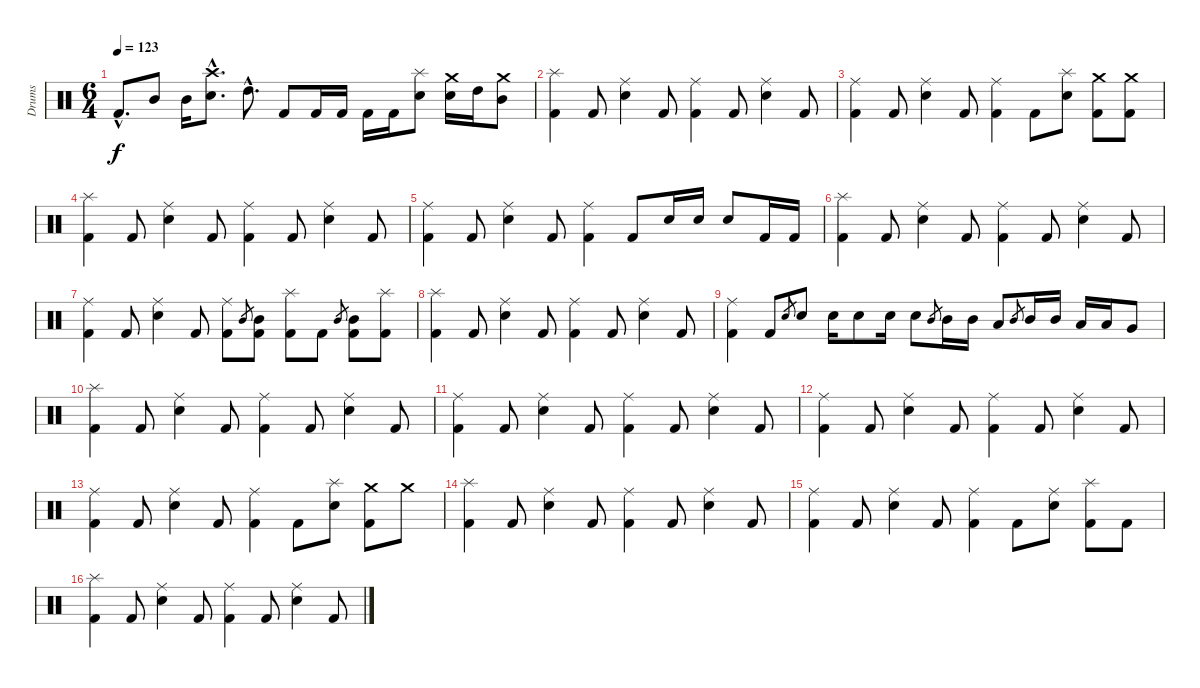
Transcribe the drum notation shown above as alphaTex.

\track ("Drums" "Drums") {instrument percussion}
\staff {score}
\articulation defaults
\ts (6 4)
\tempo 123
\clef neutral
\ks c "Kick (hit) 2"{hac}.8{d dy f} "Mid Tom (hit)".8 "Mid Tom (hit)".16
("Crash high (hit)"{hac} "Snare (hit) 2"{hac}).8{d} "High Tom (hit)"{hac}.8{d} "Kick (hit) 2".8 "Kick (hit) 2".16 "Kick (hit) 2".16 "Kick (hit) 2".16 "Kick (hit) 2".16 ("Splash (hit)" "Snare (hit) 2").8 ("Crash medium (hit)" "Snare (hit) 2").16 "High Tom (hit)".16 ("Crash medium (hit)" "Mid Tom (hit)").8 |
("Splash (hit)" "Kick (hit) 2").4 "Kick (hit) 2".8 ("Ride (middle)" "Snare (hit) 2").4 "Kick (hit) 2".8 ("Ride (middle)" "Kick (hit) 2").4 "Kick (hit) 2".8 ("Ride (middle)" "Snare (hit) 2").4 "Kick (hit) 2".8 |
("Ride (middle)" "Kick (hit) 2").4 "Kick (hit) 2".8 ("Ride (middle)" "Snare (hit) 2").4 "Kick (hit) 2".8 ("Ride (middle)" "Kick (hit) 2").4 "Kick (hit) 2".8 ("Splash (hit)" "Snare (hit) 2").8 ("Crash medium (hit)" "Kick (hit) 2").8 ("Crash medium (hit)" "Kick (hit) 2").8 |
("Splash (hit)" "Kick (hit) 2").4 "Kick (hit) 2".8 ("Ride (middle)" "Snare (hit) 2").4 "Kick (hit) 2".8 ("Ride (middle)" "Kick (hit) 2").4 "Kick (hit) 2".8 ("Ride (middle)" "Snare (hit) 2").4 "Kick (hit) 2".8 |
("Ride (middle)" "Kick (hit) 2").4 "Kick (hit) 2".8 ("Ride (middle)" "Snare (hit) 2").4 "Kick (hit) 2".8 ("Ride (middle)" "Kick (hit) 2").4 "Kick (hit) 2".8 "Snare (hit) 2".16 "Snare (hit) 2".16 "Snare (hit) 2".8 "Kick (hit) 2".16 "Kick (hit) 2".16 |
("Splash (hit)" "Kick (hit) 2").4 "Kick (hit) 2".8 ("Ride (middle)" "Snare (hit) 2").4 "Kick (hit) 2".8 ("Ride (middle)" "Kick (hit) 2").4 "Kick (hit) 2".8 ("Ride (middle)" "Snare (hit) 2").4 "Kick (hit) 2".8 |
("Ride (middle)" "Kick (hit) 2").4 "Kick (hit) 2".8 ("Ride (middle)" "Snare (hit) 2").4 "Kick (hit) 2".8 ("Ride (middle)" "Kick (hit) 2").8 "Mid Tom (hit)".8{gr} ("Mid Tom (hit)" "Kick (hit) 2").8 ("Splash (hit)" "Kick (hit) 2").8 "Kick (hit) 2".8 "Mid Tom (hit)".8{gr} ("Mid Tom (hit)" "Kick (hit) 2").8 ("Splash (hit)" "Kick (hit) 2").8 |
("Splash (hit)" "Kick (hit) 2").4 "Kick (hit) 2".8 ("Ride (middle)" "Snare (hit) 2").4 "Kick (hit) 2".8 ("Ride (middle)" "Kick (hit) 2").4 "Kick (hit) 2".8 ("Ride (middle)" "Snare (hit) 2").4 "Kick (hit) 2".8 |
("Ride (middle)" "Kick (hit) 2").4 "Kick (hit) 2".8 "Snare (hit) 2".8{gr} "Snare (hit) 2".8 "Snare (hit) 2".16 "Snare (hit) 2".8 "Snare (hit) 2".16 "Snare (hit) 2".8 "Mid Tom (hit)".8{gr} "Mid Tom (hit)".16 "Mid Tom (hit)".16 "Low Tom (hit)".8 "Mid Tom (hit)".8{gr} "Mid Tom (hit)".16 "Mid Tom (hit)".16 "Low Tom (hit)".16 "Low Tom (hit)".16 "Very Low Tom (hit)".8 |
("Splash (hit)" "Kick (hit) 2").4 "Kick (hit) 2".8 ("Ride (middle)" "Snare (hit) 2").4 "Kick (hit) 2".8 ("Ride (middle)" "Kick (hit) 2").4 "Kick (hit) 2".8 ("Ride (middle)" "Snare (hit) 2").4 "Kick (hit) 2".8 |
("Ride (middle)" "Kick (hit) 2").4 "Kick (hit) 2".8 ("Ride (middle)" "Snare (hit) 2").4 "Kick (hit) 2".8 ("Ride (middle)" "Kick (hit) 2").4 "Kick (hit) 2".8 ("Ride (middle)" "Snare (hit) 2").4 "Kick (hit) 2".8 |
("Ride (middle)" "Kick (hit) 2").4 "Kick (hit) 2".8 ("Ride (middle)" "Snare (hit) 2").4 "Kick (hit) 2".8 ("Ride (middle)" "Kick (hit) 2").4 "Kick (hit) 2".8 ("Ride (middle)" "Snare (hit) 2").4 "Kick (hit) 2".8 |
("Ride (middle)" "Kick (hit) 2").4 "Kick (hit) 2".8 ("Ride (middle)" "Snare (hit) 2").4 "Kick (hit) 2".8 ("Ride (middle)" "Kick (hit) 2").4 "Kick (hit) 2".8 ("Splash (hit)" "Snare (hit) 2").8 ("Crash medium (hit)" "Kick (hit) 2").8 "Crash medium (hit)".8 |
("Splash (hit)" "Kick (hit) 2").4 "Kick (hit) 2".8 ("Ride (middle)" "Snare (hit) 2").4 "Kick (hit) 2".8 ("Ride (middle)" "Kick (hit) 2").4 "Kick (hit) 2".8 ("Ride (middle)" "Snare (hit) 2").4 "Kick (hit) 2".8 |
("Ride (middle)" "Kick (hit) 2").4 "Kick (hit) 2".8 ("Ride (middle)" "Snare (hit) 2").4 "Kick (hit) 2".8 ("Ride (middle)" "Kick (hit) 2").4 "Kick (hit) 2".8 ("Ride (middle)" "Snare (hit) 2").8 ("Splash (hit)" "Kick (hit) 2").8 "Kick (hit) 2".8 |
("Splash (hit)" "Kick (hit) 2").4 "Kick (hit) 2".8 ("Ride (middle)" "Snare (hit) 2").4 "Kick (hit) 2".8 ("Ride (middle)" "Kick (hit) 2").4 "Kick (hit) 2".8 ("Ride (middle)" "Snare (hit) 2").4 "Kick (hit) 2".8
